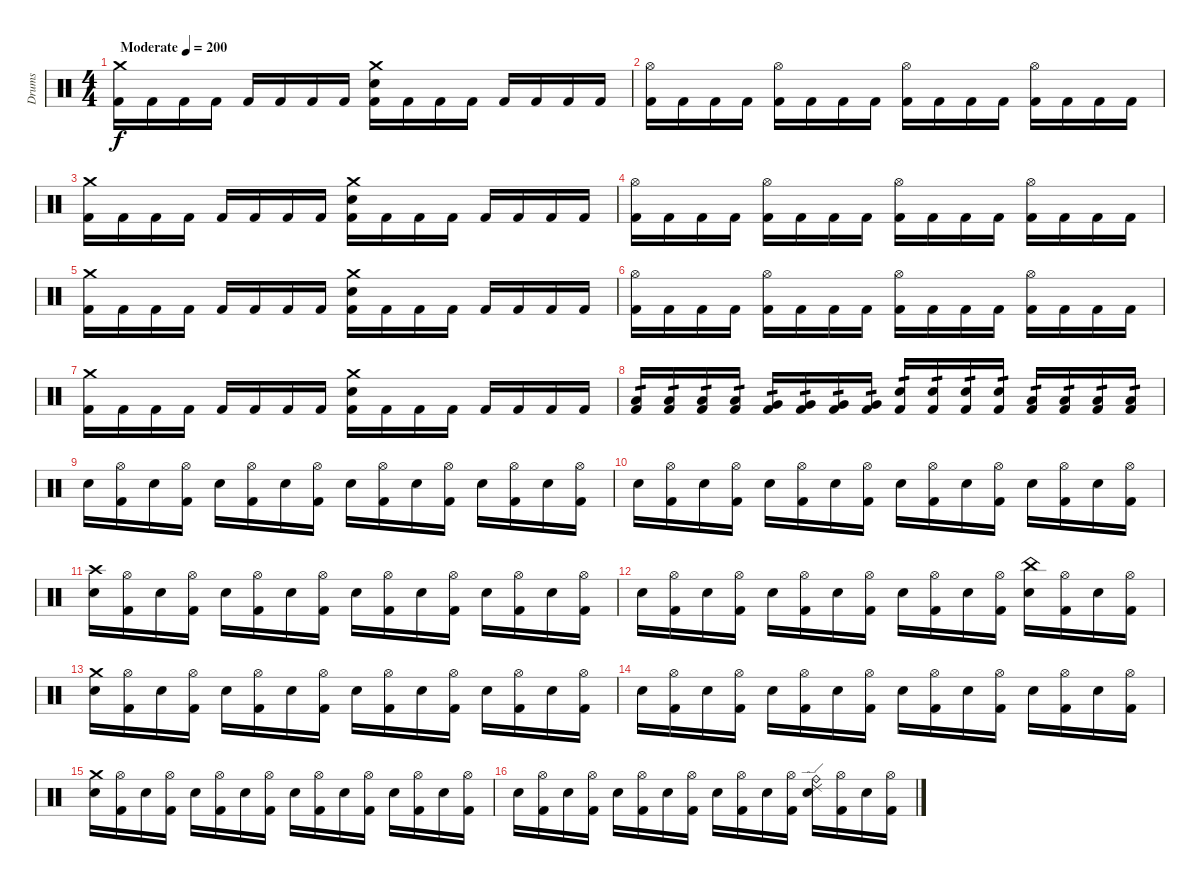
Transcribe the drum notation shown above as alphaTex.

\track ("Drums" "Drums") {instrument percussion}
\staff {score}
\articulation defaults
\ts (4 4)
\tempo (200 "Moderate")
\clef neutral
\ks c
("Crash medium (hit)" "Kick (hit) 2").16{dy f} "Kick (hit) 2".16 "Kick (hit) 2".16 "Kick (hit) 2".16 "Kick (hit) 2".16 "Kick (hit) 2".16 "Kick (hit) 2".16 "Kick (hit) 2".16 ("Crash medium (hit)" "Electric Snare (hit)" "Kick (hit) 2").16 "Kick (hit) 2".16 "Kick (hit) 2".16 "Kick (hit) 2".16 "Kick (hit) 2".16 "Kick (hit) 2".16 "Kick (hit) 2".16 "Kick (hit) 2".16 |
("Hi-Hat (open)" "Kick (hit) 2").16 "Kick (hit) 2".16 "Kick (hit) 2".16 "Kick (hit) 2".16 ("Hi-Hat (open)" "Kick (hit) 2").16 "Kick (hit) 2".16 "Kick (hit) 2".16 "Kick (hit) 2".16 ("Hi-Hat (open)" "Kick (hit) 2").16 "Kick (hit) 2".16 "Kick (hit) 2".16 "Kick (hit) 2".16 ("Hi-Hat (open)" "Kick (hit) 2").16 "Kick (hit) 2".16 "Kick (hit) 2".16 "Kick (hit) 2".16 |
("Crash medium (hit)" "Kick (hit) 2").16 "Kick (hit) 2".16 "Kick (hit) 2".16 "Kick (hit) 2".16 "Kick (hit) 2".16 "Kick (hit) 2".16 "Kick (hit) 2".16 "Kick (hit) 2".16 ("Crash medium (hit)" "Electric Snare (hit)" "Kick (hit) 2").16 "Kick (hit) 2".16 "Kick (hit) 2".16 "Kick (hit) 2".16 "Kick (hit) 2".16 "Kick (hit) 2".16 "Kick (hit) 2".16 "Kick (hit) 2".16 |
("Hi-Hat (open)" "Kick (hit) 2").16 "Kick (hit) 2".16 "Kick (hit) 2".16 "Kick (hit) 2".16 ("Hi-Hat (open)" "Kick (hit) 2").16 "Kick (hit) 2".16 "Kick (hit) 2".16 "Kick (hit) 2".16 ("Hi-Hat (open)" "Kick (hit) 2").16 "Kick (hit) 2".16 "Kick (hit) 2".16 "Kick (hit) 2".16 ("Hi-Hat (open)" "Kick (hit) 2").16 "Kick (hit) 2".16 "Kick (hit) 2".16 "Kick (hit) 2".16 |
("Crash medium (hit)" "Kick (hit) 2").16 "Kick (hit) 2".16 "Kick (hit) 2".16 "Kick (hit) 2".16 "Kick (hit) 2".16 "Kick (hit) 2".16 "Kick (hit) 2".16 "Kick (hit) 2".16 ("Crash medium (hit)" "Electric Snare (hit)" "Kick (hit) 2").16 "Kick (hit) 2".16 "Kick (hit) 2".16 "Kick (hit) 2".16 "Kick (hit) 2".16 "Kick (hit) 2".16 "Kick (hit) 2".16 "Kick (hit) 2".16 |
("Hi-Hat (open)" "Kick (hit) 2").16 "Kick (hit) 2".16 "Kick (hit) 2".16 "Kick (hit) 2".16 ("Hi-Hat (open)" "Kick (hit) 2").16 "Kick (hit) 2".16 "Kick (hit) 2".16 "Kick (hit) 2".16 ("Hi-Hat (open)" "Kick (hit) 2").16 "Kick (hit) 2".16 "Kick (hit) 2".16 "Kick (hit) 2".16 ("Hi-Hat (open)" "Kick (hit) 2").16 "Kick (hit) 2".16 "Kick (hit) 2".16 "Kick (hit) 2".16 |
("Crash medium (hit)" "Kick (hit) 2").16 "Kick (hit) 2".16 "Kick (hit) 2".16 "Kick (hit) 2".16 "Kick (hit) 2".16 "Kick (hit) 2".16 "Kick (hit) 2".16 "Kick (hit) 2".16 ("Crash medium (hit)" "Electric Snare (hit)" "Kick (hit) 2").16 "Kick (hit) 2".16 "Kick (hit) 2".16 "Kick (hit) 2".16 "Kick (hit) 2".16 "Kick (hit) 2".16 "Kick (hit) 2".16 "Kick (hit) 2".16 |
("Low Tom (hit)" "Kick (hit) 2").16{tp 1} ("Low Tom (hit)" "Kick (hit) 2").16{tp 1} ("Low Tom (hit)" "Kick (hit) 2").16{tp 1} ("Low Tom (hit)" "Kick (hit) 2").16{tp 1} ("Very Low Tom (hit)" "Kick (hit) 2").16{tp 1} ("Very Low Tom (hit)" "Kick (hit) 2").16{tp 1} ("Very Low Tom (hit)" "Kick (hit) 2").16{tp 1} ("Very Low Tom (hit)" "Kick (hit) 2").16{tp 1} ("Electric Snare (hit)" "Kick (hit) 2").16{tp 1} ("Electric Snare (hit)" "Kick (hit) 2").16{tp 1} ("Electric Snare (hit)" "Kick (hit) 2").16{tp 1} ("Electric Snare (hit)" "Kick (hit) 2").16{tp 1} ("Low Floor Tom (hit)" "Kick (hit) 2").16{tp 1} ("Low Floor Tom (hit)" "Kick (hit) 2").16{tp 1} ("Low Floor Tom (hit)" "Kick (hit) 2").16{tp 1} ("Low Floor Tom (hit)" "Kick (hit) 2").16{tp 1} |
"Electric Snare (hit)".16 ("Hi-Hat (open)" "Kick (hit) 2").16 "Electric Snare (hit)".16 ("Hi-Hat (open)" "Kick (hit) 2").16 "Electric Snare (hit)".16 ("Hi-Hat (open)" "Kick (hit) 2").16 "Electric Snare (hit)".16 ("Hi-Hat (open)" "Kick (hit) 2").16 "Electric Snare (hit)".16 ("Hi-Hat (open)" "Kick (hit) 2").16 "Electric Snare (hit)".16 ("Hi-Hat (open)" "Kick (hit) 2").16 "Electric Snare (hit)".16 ("Hi-Hat (open)" "Kick (hit) 2").16 "Electric Snare (hit)".16 ("Hi-Hat (open)" "Kick (hit) 2").16 |
"Electric Snare (hit)".16 ("Hi-Hat (open)" "Kick (hit) 2").16 "Electric Snare (hit)".16 ("Hi-Hat (open)" "Kick (hit) 2").16 "Electric Snare (hit)".16 ("Hi-Hat (open)" "Kick (hit) 2").16 "Electric Snare (hit)".16 ("Hi-Hat (open)" "Kick (hit) 2").16 "Electric Snare (hit)".16 ("Hi-Hat (open)" "Kick (hit) 2").16 "Electric Snare (hit)".16 ("Hi-Hat (open)" "Kick (hit) 2").16 "Electric Snare (hit)".16 ("Hi-Hat (open)" "Kick (hit) 2").16 "Electric Snare (hit)".16 ("Hi-Hat (open)" "Kick (hit) 2").16 |
("Crash high (hit)" "Electric Snare (hit)").16 ("Hi-Hat (open)" "Kick (hit) 2").16 "Electric Snare (hit)".16 ("Hi-Hat (open)" "Kick (hit) 2").16 "Electric Snare (hit)".16 ("Hi-Hat (open)" "Kick (hit) 2").16 "Electric Snare (hit)".16 ("Hi-Hat (open)" "Kick (hit) 2").16 "Electric Snare (hit)".16 ("Hi-Hat (open)" "Kick (hit) 2").16 "Electric Snare (hit)".16 ("Hi-Hat (open)" "Kick (hit) 2").16 "Electric Snare (hit)".16 ("Hi-Hat (open)" "Kick (hit) 2").16 "Electric Snare (hit)".16 ("Hi-Hat (open)" "Kick (hit) 2").16 |
"Electric Snare (hit)".16 ("Hi-Hat (open)" "Kick (hit) 2").16 "Electric Snare (hit)".16 ("Hi-Hat (open)" "Kick (hit) 2").16 "Electric Snare (hit)".16 ("Hi-Hat (open)" "Kick (hit) 2").16 "Electric Snare (hit)".16 ("Hi-Hat (open)" "Kick (hit) 2").16 "Electric Snare (hit)".16 ("Hi-Hat (open)" "Kick (hit) 2").16 "Electric Snare (hit)".16 ("Hi-Hat (open)" "Kick (hit) 2").16 ("China (hit)" "Electric Snare (hit)").16 ("Hi-Hat (open)" "Kick (hit) 2").16 "Electric Snare (hit)".16 ("Hi-Hat (open)" "Kick (hit) 2").16 |
("Crash medium (hit)" "Electric Snare (hit)").16 ("Hi-Hat (open)" "Kick (hit) 2").16 "Electric Snare (hit)".16 ("Hi-Hat (open)" "Kick (hit) 2").16 "Electric Snare (hit)".16 ("Hi-Hat (open)" "Kick (hit) 2").16 "Electric Snare (hit)".16 ("Hi-Hat (open)" "Kick (hit) 2").16 "Electric Snare (hit)".16 ("Hi-Hat (open)" "Kick (hit) 2").16 "Electric Snare (hit)".16 ("Hi-Hat (open)" "Kick (hit) 2").16 "Electric Snare (hit)".16 ("Hi-Hat (open)" "Kick (hit) 2").16 "Electric Snare (hit)".16 ("Hi-Hat (open)" "Kick (hit) 2").16 |
"Electric Snare (hit)".16 ("Hi-Hat (open)" "Kick (hit) 2").16 "Electric Snare (hit)".16 ("Hi-Hat (open)" "Kick (hit) 2").16 "Electric Snare (hit)".16 ("Hi-Hat (open)" "Kick (hit) 2").16 "Electric Snare (hit)".16 ("Hi-Hat (open)" "Kick (hit) 2").16 "Electric Snare (hit)".16 ("Hi-Hat (open)" "Kick (hit) 2").16 "Electric Snare (hit)".16 ("Hi-Hat (open)" "Kick (hit) 2").16 "Electric Snare (hit)".16 ("Hi-Hat (open)" "Kick (hit) 2").16 "Electric Snare (hit)".16 ("Hi-Hat (open)" "Kick (hit) 2").16 |
("Crash medium (hit)" "Electric Snare (hit)").16 ("Hi-Hat (open)" "Kick (hit) 2").16 "Electric Snare (hit)".16 ("Hi-Hat (open)" "Kick (hit) 2").16 "Electric Snare (hit)".16 ("Hi-Hat (open)" "Kick (hit) 2").16 "Electric Snare (hit)".16 ("Hi-Hat (open)" "Kick (hit) 2").16 "Electric Snare (hit)".16 ("Hi-Hat (open)" "Kick (hit) 2").16 "Electric Snare (hit)".16 ("Hi-Hat (open)" "Kick (hit) 2").16 "Electric Snare (hit)".16 ("Hi-Hat (open)" "Kick (hit) 2").16 "Electric Snare (hit)".16 ("Hi-Hat (open)" "Kick (hit) 2").16 |
"Electric Snare (hit)".16 ("Hi-Hat (open)" "Kick (hit) 2").16 "Electric Snare (hit)".16 ("Hi-Hat (open)" "Kick (hit) 2").16 "Electric Snare (hit)".16 ("Hi-Hat (open)" "Kick (hit) 2").16 "Electric Snare (hit)".16 ("Hi-Hat (open)" "Kick (hit) 2").16 "Electric Snare (hit)".16 ("Hi-Hat (open)" "Kick (hit) 2").16 "Electric Snare (hit)".16 ("Hi-Hat (open)" "Kick (hit) 2").16 ("Ride (bell)" "Ride (edge) 2" "Electric Snare (hit)").16 ("Hi-Hat (open)" "Kick (hit) 2").16 "Electric Snare (hit)".16 ("Hi-Hat (open)" "Kick (hit) 2").16
